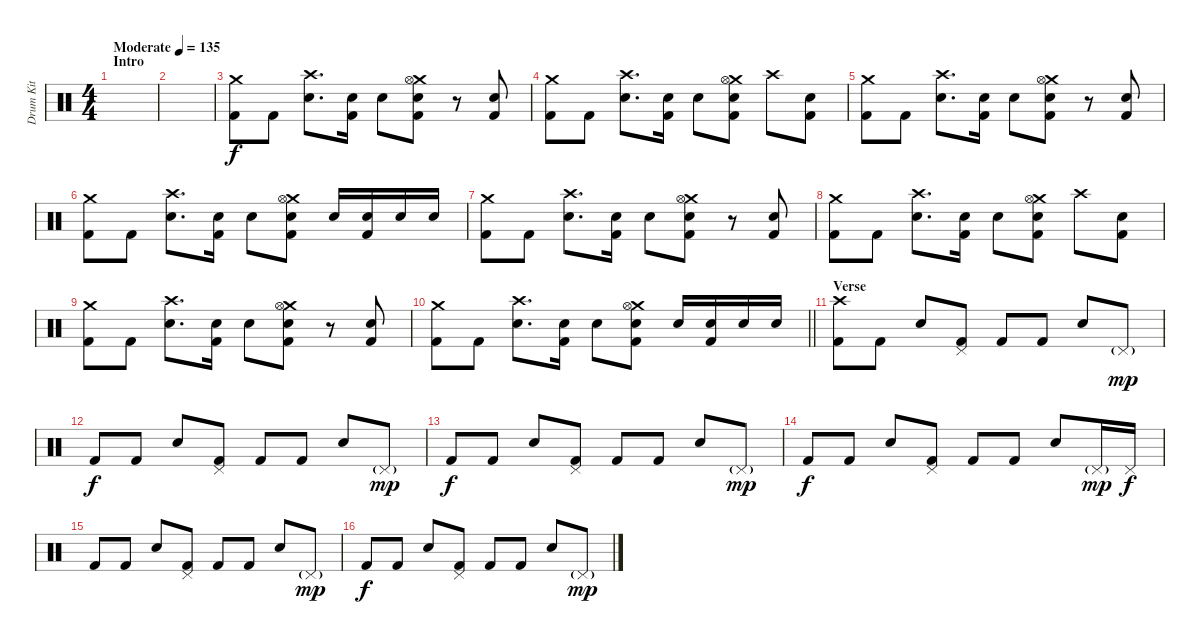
\track ("Drum Kit" "Drum Kit") {instrument percussion}
\staff {score}
\articulation defaults
\ts (4 4)
\section ("" "Intro")
\tempo (135 "Moderate")
\clef neutral
\ks c
|
|
("Crash medium (hit)" "Kick (hit) 2").8 "Kick (hit) 2".8 ("Crash high (hit)" "Electric Snare (hit)").8{d} ("Electric Snare (hit)" "Kick (hit) 2").16 "Electric Snare (hit)".8 ("Crash medium (hit)" "Hi-Hat (open)" "Electric Snare (hit)" "Kick (hit) 2").8 r.8 ("Electric Snare (hit)" "Kick (hit) 2").8 |
("Crash medium (hit)" "Kick (hit) 2").8 "Kick (hit) 2".8 ("Crash high (hit)" "Electric Snare (hit)").8{d} ("Electric Snare (hit)" "Kick (hit) 2").16 "Electric Snare (hit)".8 ("Crash medium (hit)" "Hi-Hat (open)" "Electric Snare (hit)" "Kick (hit) 2").8 "Crash high (hit)".8 ("Electric Snare (hit)" "Kick (hit) 2").8 |
("Crash medium (hit)" "Kick (hit) 2").8 "Kick (hit) 2".8 ("Crash high (hit)" "Electric Snare (hit)").8{d} ("Electric Snare (hit)" "Kick (hit) 2").16 "Electric Snare (hit)".8 ("Crash medium (hit)" "Hi-Hat (open)" "Electric Snare (hit)" "Kick (hit) 2").8 r.8 ("Electric Snare (hit)" "Kick (hit) 2").8 |
("Crash medium (hit)" "Kick (hit) 2").8 "Kick (hit) 2".8 ("Crash high (hit)" "Electric Snare (hit)").8{d} ("Electric Snare (hit)" "Kick (hit) 2").16 "Electric Snare (hit)".8 ("Crash medium (hit)" "Hi-Hat (open)" "Electric Snare (hit)" "Kick (hit) 2").8 "Electric Snare (hit)".16 ("Electric Snare (hit)" "Kick (hit) 2").16 "Electric Snare (hit)".16 "Electric Snare (hit)".16 |
("Crash medium (hit)" "Kick (hit) 2").8 "Kick (hit) 2".8 ("Crash high (hit)" "Electric Snare (hit)").8{d} ("Electric Snare (hit)" "Kick (hit) 2").16 "Electric Snare (hit)".8 ("Crash medium (hit)" "Hi-Hat (open)" "Electric Snare (hit)" "Kick (hit) 2").8 r.8 ("Electric Snare (hit)" "Kick (hit) 2").8 |
("Crash medium (hit)" "Kick (hit) 2").8 "Kick (hit) 2".8 ("Crash high (hit)" "Electric Snare (hit)").8{d} ("Electric Snare (hit)" "Kick (hit) 2").16 "Electric Snare (hit)".8 ("Crash medium (hit)" "Hi-Hat (open)" "Electric Snare (hit)" "Kick (hit) 2").8 "Crash high (hit)".8 ("Electric Snare (hit)" "Kick (hit) 2").8 |
("Crash medium (hit)" "Kick (hit) 2").8 "Kick (hit) 2".8 ("Crash high (hit)" "Electric Snare (hit)").8{d} ("Electric Snare (hit)" "Kick (hit) 2").16 "Electric Snare (hit)".8 ("Crash medium (hit)" "Hi-Hat (open)" "Electric Snare (hit)" "Kick (hit) 2").8 r.8 ("Electric Snare (hit)" "Kick (hit) 2").8 |
\barLineRight lightlight
("Crash medium (hit)" "Kick (hit) 2").8 "Kick (hit) 2".8 ("Crash high (hit)" "Electric Snare (hit)").8{d} ("Electric Snare (hit)" "Kick (hit) 2").16 "Electric Snare (hit)".8 ("Crash medium (hit)" "Hi-Hat (open)" "Electric Snare (hit)" "Kick (hit) 2").8 "Electric Snare (hit)".16 ("Electric Snare (hit)" "Kick (hit) 2").16 "Electric Snare (hit)".16 "Electric Snare (hit)".16 |
\section ("" "Verse")
("Crash high (hit)" "Kick (hit) 2").8 "Kick (hit) 2".8 "Electric Snare (hit)".8 ("Pedal Hi-Hat (hit)" "Kick (hit) 2").8 "Kick (hit) 2".8 "Kick (hit) 2".8 "Electric Snare (hit)".8 "Pedal Hi-Hat (hit)"{g}.8{dy mp} |
"Kick (hit) 2".8{dy f} "Kick (hit) 2".8 "Electric Snare (hit)".8 ("Pedal Hi-Hat (hit)" "Kick (hit) 2").8 "Kick (hit) 2".8 "Kick (hit) 2".8 "Electric Snare (hit)".8 "Pedal Hi-Hat (hit)"{g}.8{dy mp} |
"Kick (hit) 2".8{dy f} "Kick (hit) 2".8 "Electric Snare (hit)".8 ("Pedal Hi-Hat (hit)" "Kick (hit) 2").8 "Kick (hit) 2".8 "Kick (hit) 2".8 "Electric Snare (hit)".8 "Pedal Hi-Hat (hit)"{g}.8{dy mp} |
"Kick (hit) 2".8{dy f} "Kick (hit) 2".8 "Electric Snare (hit)".8 ("Pedal Hi-Hat (hit)" "Kick (hit) 2").8 "Kick (hit) 2".8 "Kick (hit) 2".8 "Electric Snare (hit)".8 "Pedal Hi-Hat (hit)"{g}.16{dy mp} "Pedal Hi-Hat (hit)".16{dy f} |
"Kick (hit) 2".8 "Kick (hit) 2".8 "Electric Snare (hit)".8 ("Pedal Hi-Hat (hit)" "Kick (hit) 2").8 "Kick (hit) 2".8 "Kick (hit) 2".8 "Electric Snare (hit)".8 "Pedal Hi-Hat (hit)"{g}.8{dy mp} |
"Kick (hit) 2".8{dy f} "Kick (hit) 2".8 "Electric Snare (hit)".8 ("Pedal Hi-Hat (hit)" "Kick (hit) 2").8 "Kick (hit) 2".8 "Kick (hit) 2".8 "Electric Snare (hit)".8 "Pedal Hi-Hat (hit)"{g}.8{dy mp}
